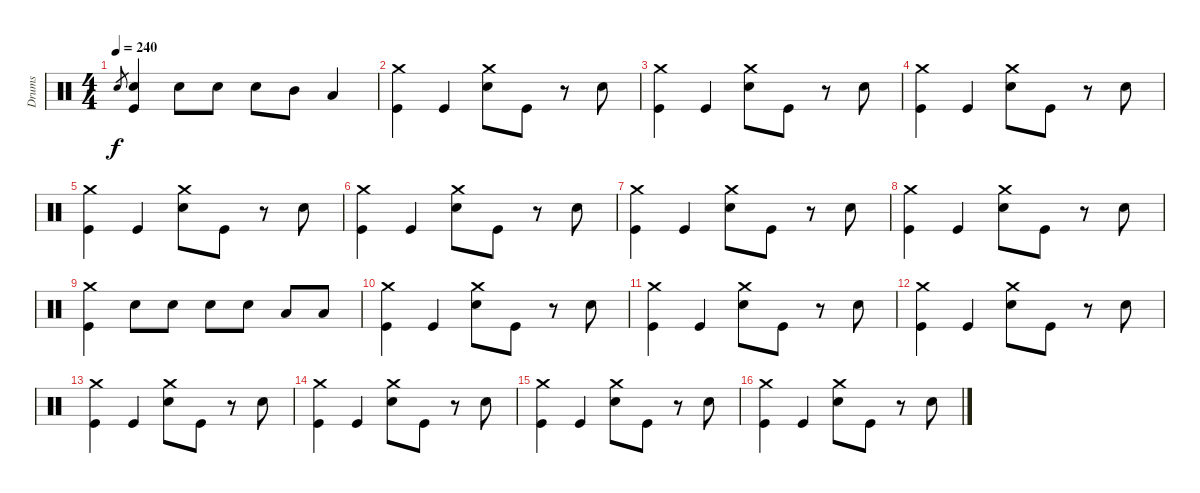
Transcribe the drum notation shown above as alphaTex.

\track ("Drums" "Drums") {instrument percussion}
\staff {score}
\articulation defaults
\ts (4 4)
\tempo 240
\clef neutral
\ks c "Snare (hit) 2".8{gr dy f}
("Snare (hit) 2" "Kick (hit)").4 "Snare (hit) 2".8 "Snare (hit) 2".8 "Snare (hit) 2".8 "Mid Tom (hit)".8 "Low Tom (hit)".4 |
("Crash medium (hit)" "Kick (hit)").4 "Kick (hit)".4 ("Crash medium (hit)" "Snare (hit) 2").8 "Kick (hit)".8 r.8 "Snare (hit) 2".8 |
("Crash medium (hit)" "Kick (hit)").4 "Kick (hit)".4 ("Crash medium (hit)" "Snare (hit) 2").8 "Kick (hit)".8 r.8 "Snare (hit) 2".8 |
("Crash medium (hit)" "Kick (hit)").4 "Kick (hit)".4 ("Crash medium (hit)" "Snare (hit) 2").8 "Kick (hit)".8 r.8 "Snare (hit) 2".8 |
("Crash medium (hit)" "Kick (hit)").4 "Kick (hit)".4 ("Crash medium (hit)" "Snare (hit) 2").8 "Kick (hit)".8 r.8 "Snare (hit) 2".8 |
("Crash medium (hit)" "Kick (hit)").4 "Kick (hit)".4 ("Crash medium (hit)" "Snare (hit) 2").8 "Kick (hit)".8 r.8 "Snare (hit) 2".8 |
("Crash medium (hit)" "Kick (hit)").4 "Kick (hit)".4 ("Crash medium (hit)" "Snare (hit) 2").8 "Kick (hit)".8 r.8 "Snare (hit) 2".8 |
("Crash medium (hit)" "Kick (hit)").4 "Kick (hit)".4 ("Crash medium (hit)" "Snare (hit) 2").8 "Kick (hit)".8 r.8 "Snare (hit) 2".8 |
("Crash medium (hit)" "Kick (hit)").4 "Snare (hit) 2".8 "Snare (hit) 2".8 "Snare (hit) 2".8 "Snare (hit) 2".8 "Low Tom (hit)".8 "Low Tom (hit)".8 |
("Crash medium (hit)" "Kick (hit)").4 "Kick (hit)".4 ("Crash medium (hit)" "Snare (hit) 2").8 "Kick (hit)".8 r.8 "Snare (hit) 2".8 |
("Crash medium (hit)" "Kick (hit)").4 "Kick (hit)".4 ("Crash medium (hit)" "Snare (hit) 2").8 "Kick (hit)".8 r.8 "Snare (hit) 2".8 |
("Crash medium (hit)" "Kick (hit)").4 "Kick (hit)".4 ("Crash medium (hit)" "Snare (hit) 2").8 "Kick (hit)".8 r.8 "Snare (hit) 2".8 |
("Crash medium (hit)" "Kick (hit)").4 "Kick (hit)".4 ("Crash medium (hit)" "Snare (hit) 2").8 "Kick (hit)".8 r.8 "Snare (hit) 2".8 |
("Crash medium (hit)" "Kick (hit)").4 "Kick (hit)".4 ("Crash medium (hit)" "Snare (hit) 2").8 "Kick (hit)".8 r.8 "Snare (hit) 2".8 |
("Crash medium (hit)" "Kick (hit)").4 "Kick (hit)".4 ("Crash medium (hit)" "Snare (hit) 2").8 "Kick (hit)".8 r.8 "Snare (hit) 2".8 |
("Crash medium (hit)" "Kick (hit)").4 "Kick (hit)".4 ("Crash medium (hit)" "Snare (hit) 2").8 "Kick (hit)".8 r.8 "Snare (hit) 2".8
